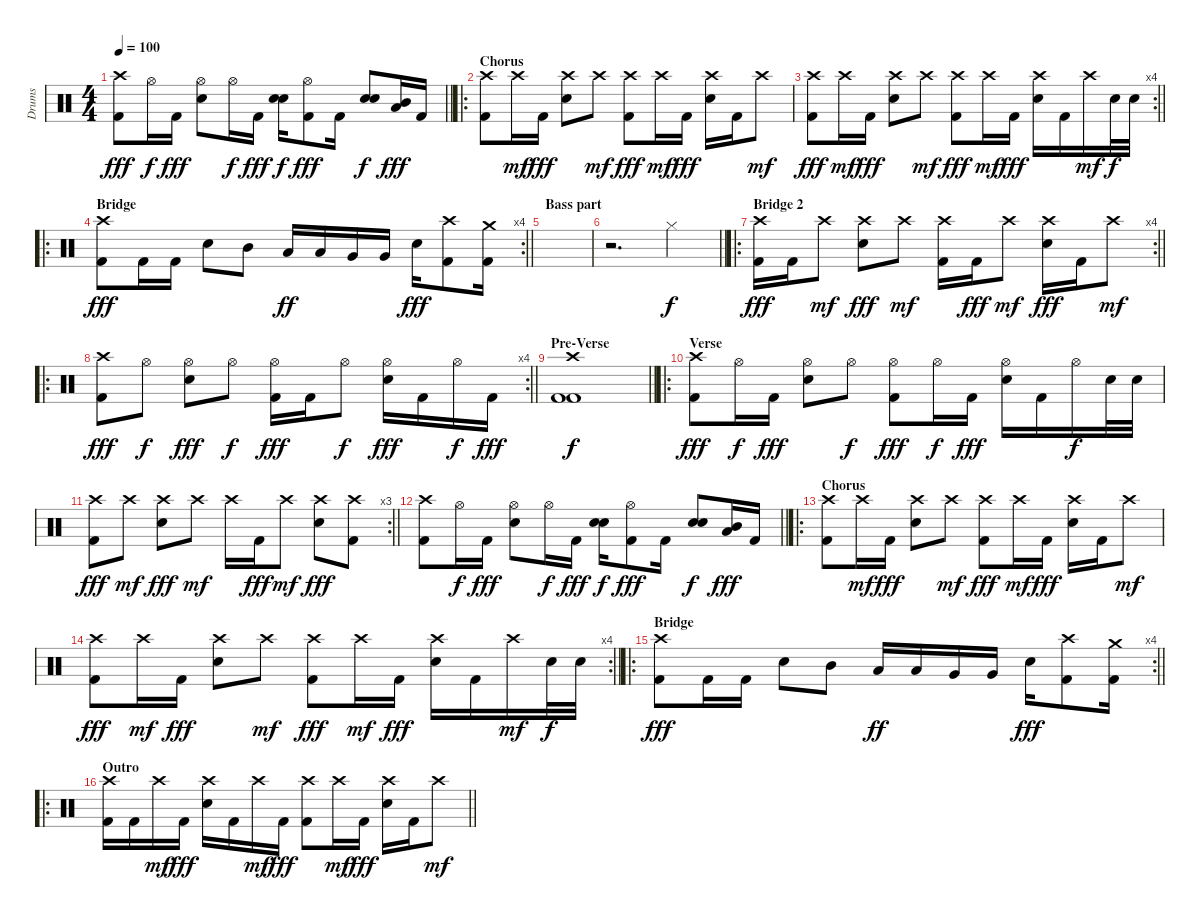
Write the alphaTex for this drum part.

\track ("Drums" "Drums") {instrument percussion}
\staff {score}
\articulation defaults
\ts (4 4)
\tempo 100
\clef neutral
\barLineRight lightlight
\ks c
("Crash high (hit)" "Kick (hit) 2").8{dy fff} "Hi-Hat (open)".16{dy f} "Kick (hit) 2".16{dy fff} ("Hi-Hat (open)" "Electric Snare (hit)").8 "Hi-Hat (open)".16{dy f} "Kick (hit) 2".16{dy fff} ("Electric Snare (hit)" "Electric Snare (hit)").16{dy f} ("Hi-Hat (open)" "Kick (hit) 2").8{dy fff} "Kick (hit) 2".16 ("Electric Snare (hit)" "Electric Snare (hit)").8{dy f} ("Mid Tom (hit)" "Low Tom (hit)").16{dy fff} "Kick (hit) 2".16 |
\ro
\section ("" "Chorus")
("Crash high (hit)" "Kick (hit) 2").8 "Crash high (hit)".16{dy mf} "Kick (hit) 2".16{dy fff} ("Crash high (hit)" "Electric Snare (hit)").8 "Crash high (hit)".8{dy mf} ("Crash high (hit)" "Kick (hit) 2").8{dy fff} "Crash high (hit)".16{dy mf} "Kick (hit) 2".16{dy fff} ("Crash high (hit)" "Electric Snare (hit)").16 "Kick (hit) 2".16 "Crash high (hit)".8{dy mf} |
\rc 4
\barLineRight lightlight
("Crash high (hit)" "Kick (hit) 2").8{dy fff} "Crash high (hit)".16{dy mf} "Kick (hit) 2".16{dy fff} ("Crash high (hit)" "Electric Snare (hit)").8 "Crash high (hit)".8{dy mf} ("Crash high (hit)" "Kick (hit) 2").8{dy fff} "Crash high (hit)".16{dy mf} "Kick (hit) 2".16{dy fff} ("Crash high (hit)" "Electric Snare (hit)").16 "Kick (hit) 2".16 "Crash high (hit)".16{dy mf} "Electric Snare (hit)".32{dy f} "Electric Snare (hit)".32 |
\ro
\rc 4
\section ("" "Bridge")
\barLineRight lightlight
("Crash high (hit)" "Kick (hit) 2").8{dy fff} "Kick (hit) 2".16 "Kick (hit) 2".16 "Electric Snare (hit)".8 "Mid Tom (hit)".8 "Low Tom (hit)".16{dy ff} "Low Tom (hit)".16 "Very Low Tom (hit)".16 "Very Low Tom (hit)".16 "Electric Snare (hit)".16{dy fff} ("Crash high (hit)" "Kick (hit) 2").8 ("Crash medium (hit)" "Kick (hit) 2").16 |
\section ("" "Bass part")
|
\barLineRight lightlight
r.2{d} "Hi-Hat (closed)".4{dy f} |
\ro
\rc 4
\section ("" "Bridge 2")
\barLineRight lightlight
("Crash high (hit)" "Kick (hit) 2").16{dy fff} "Kick (hit) 2".16 "Crash high (hit)".8{dy mf} ("Crash high (hit)" "Electric Snare (hit)").8{dy fff} "Crash high (hit)".8{dy mf} ("Crash high (hit)" "Kick (hit) 2").16 "Kick (hit) 2".16{dy fff} "Crash high (hit)".8{dy mf} ("Crash high (hit)" "Electric Snare (hit)").16{dy fff} "Kick (hit) 2".16 "Crash high (hit)".8{dy mf} |
\ro
\rc 4
\barLineRight lightlight
("Crash high (hit)" "Kick (hit) 2").8{dy fff} "Hi-Hat (open)".8{dy f} ("Hi-Hat (open)" "Electric Snare (hit)").8{dy fff} "Hi-Hat (open)".8{dy f} ("Hi-Hat (open)" "Kick (hit) 2").16{dy fff} "Kick (hit) 2".16 "Hi-Hat (open)".8{dy f} ("Hi-Hat (open)" "Electric Snare (hit)").16{dy fff} "Kick (hit) 2".16 "Hi-Hat (open)".16{dy f} "Kick (hit) 2".16{dy fff} |
\section ("" "Pre-Verse")
\barLineRight lightlight
("Crash high (hit)" "Kick (hit) 2" "Kick (hit) 2").1{dy f} |
\ro
\section ("" "Verse")
("Crash high (hit)" "Kick (hit) 2").8{dy fff} "Hi-Hat (open)".16{dy f} "Kick (hit) 2".16{dy fff} ("Hi-Hat (open)" "Electric Snare (hit)").8 "Hi-Hat (open)".8{dy f} ("Hi-Hat (open)" "Kick (hit) 2").8{dy fff} "Hi-Hat (open)".16{dy f} "Kick (hit) 2".16{dy fff} ("Hi-Hat (open)" "Electric Snare (hit)").16 "Kick (hit) 2".16 "Hi-Hat (open)".16{dy f} "Electric Snare (hit)".32 "Electric Snare (hit)".32 |
\rc 3
\barLineRight lightlight
("Crash high (hit)" "Kick (hit) 2").8{dy fff} "Crash high (hit)".8{dy mf} ("Crash high (hit)" "Electric Snare (hit)").8{dy fff} "Crash high (hit)".8{dy mf} "Crash high (hit)".16 "Kick (hit) 2".16{dy fff} "Crash high (hit)".8{dy mf} ("Crash high (hit)" "Electric Snare (hit)").8{dy fff} ("Crash high (hit)" "Kick (hit) 2").8 |
\barLineRight lightlight
("Crash high (hit)" "Kick (hit) 2").8 "Hi-Hat (open)".16{dy f} "Kick (hit) 2".16{dy fff} ("Hi-Hat (open)" "Electric Snare (hit)").8 "Hi-Hat (open)".16{dy f} "Kick (hit) 2".16{dy fff} ("Electric Snare (hit)" "Electric Snare (hit)").16{dy f} ("Hi-Hat (open)" "Kick (hit) 2").8{dy fff} "Kick (hit) 2".16 ("Electric Snare (hit)" "Electric Snare (hit)").8{dy f} ("Mid Tom (hit)" "Low Tom (hit)").16{dy fff} "Kick (hit) 2".16 |
\ro
\section ("" "Chorus")
("Crash high (hit)" "Kick (hit) 2").8 "Crash high (hit)".16{dy mf} "Kick (hit) 2".16{dy fff} ("Crash high (hit)" "Electric Snare (hit)").8 "Crash high (hit)".8{dy mf} ("Crash high (hit)" "Kick (hit) 2").8{dy fff} "Crash high (hit)".16{dy mf} "Kick (hit) 2".16{dy fff} ("Crash high (hit)" "Electric Snare (hit)").16 "Kick (hit) 2".16 "Crash high (hit)".8{dy mf} |
\rc 4
\barLineRight lightlight
("Crash high (hit)" "Kick (hit) 2").8{dy fff} "Crash high (hit)".16{dy mf} "Kick (hit) 2".16{dy fff} ("Crash high (hit)" "Electric Snare (hit)").8 "Crash high (hit)".8{dy mf} ("Crash high (hit)" "Kick (hit) 2").8{dy fff} "Crash high (hit)".16{dy mf} "Kick (hit) 2".16{dy fff} ("Crash high (hit)" "Electric Snare (hit)").16 "Kick (hit) 2".16 "Crash high (hit)".16{dy mf} "Electric Snare (hit)".32{dy f} "Electric Snare (hit)".32 |
\ro
\rc 4
\section ("" "Bridge")
\barLineRight lightlight
("Crash high (hit)" "Kick (hit) 2").8{dy fff} "Kick (hit) 2".16 "Kick (hit) 2".16 "Electric Snare (hit)".8 "Mid Tom (hit)".8 "Low Tom (hit)".16{dy ff} "Low Tom (hit)".16 "Very Low Tom (hit)".16 "Very Low Tom (hit)".16 "Electric Snare (hit)".16{dy fff} ("Crash high (hit)" "Kick (hit) 2").8 ("Crash medium (hit)" "Kick (hit) 2").16 |
\ro
\section ("" "Outro")
\barLineRight lightlight
("Crash high (hit)" "Kick (hit) 2").16 "Kick (hit) 2".16 "Crash high (hit)".16{dy mf} "Kick (hit) 2".16{dy fff} ("Crash high (hit)" "Electric Snare (hit)").16 "Kick (hit) 2".16 "Crash high (hit)".16{dy mf} "Kick (hit) 2".16{dy fff} ("Crash high (hit)" "Kick (hit) 2").8 "Crash high (hit)".16{dy mf} "Kick (hit) 2".16{dy fff} ("Crash high (hit)" "Electric Snare (hit)").16 "Kick (hit) 2".16 "Crash high (hit)".8{dy mf}
